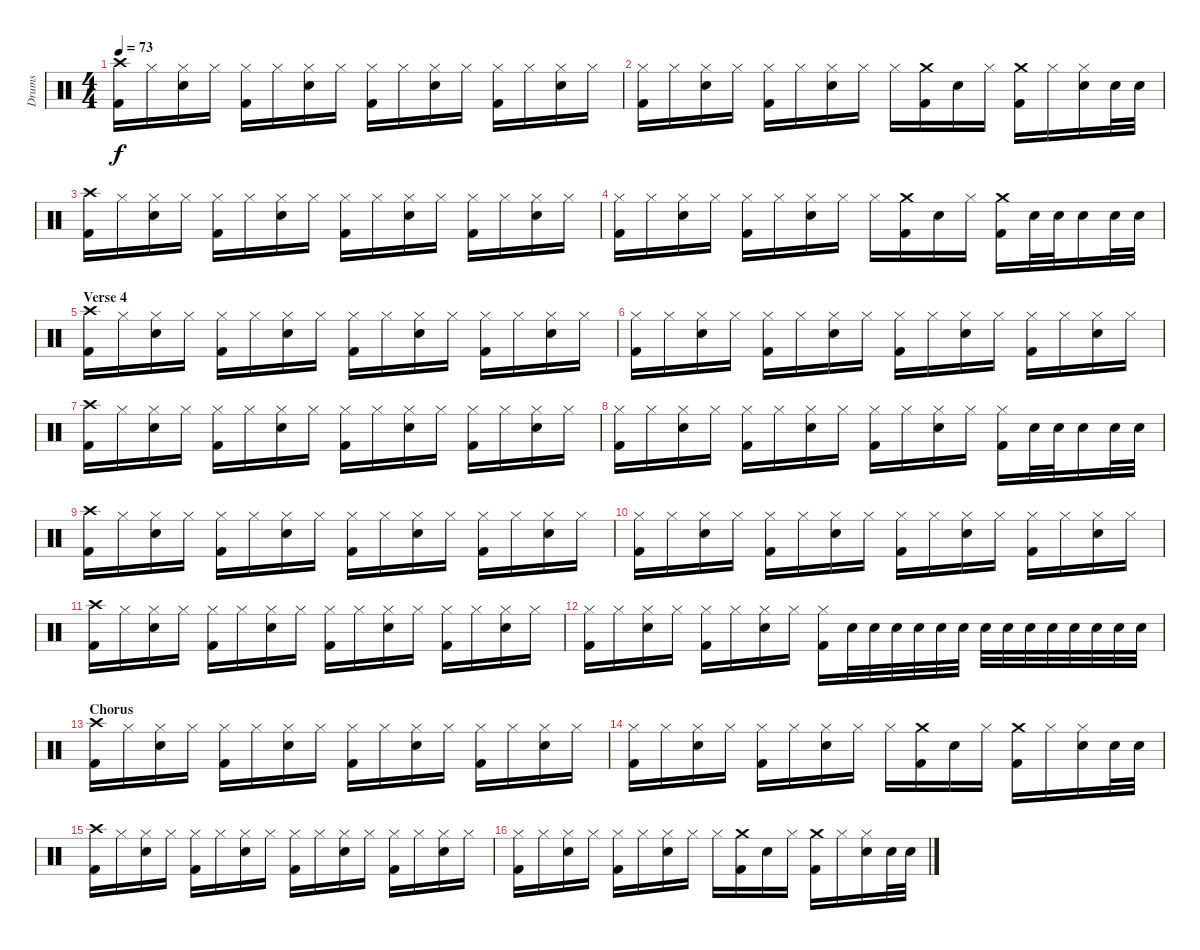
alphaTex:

\track ("Drums" "Drums") {instrument percussion}
\staff {score}
\articulation defaults
\ts (4 4)
\tempo 73
\clef neutral
\ks c
("Crash high (hit)" "Kick (hit) 2").16{dy f} "Hi-Hat (closed)".16 ("Hi-Hat (closed)" "Snare (hit) 2").16 "Hi-Hat (closed)".16 ("Hi-Hat (closed)" "Kick (hit) 2").16 "Hi-Hat (closed)".16 ("Hi-Hat (closed)" "Snare (hit) 2").16 "Hi-Hat (closed)".16 ("Hi-Hat (closed)" "Kick (hit) 2").16 "Hi-Hat (closed)".16 ("Hi-Hat (closed)" "Snare (hit) 2").16 "Hi-Hat (closed)".16 ("Hi-Hat (closed)" "Kick (hit) 2").16 "Hi-Hat (closed)".16 ("Hi-Hat (closed)" "Snare (hit) 2").16 "Hi-Hat (closed)".16 |
("Hi-Hat (closed)" "Kick (hit) 2").16 "Hi-Hat (closed)".16 ("Hi-Hat (closed)" "Snare (hit) 2").16 "Hi-Hat (closed)".16 ("Hi-Hat (closed)" "Kick (hit) 2").16 "Hi-Hat (closed)".16 ("Hi-Hat (closed)" "Snare (hit) 2").16 "Hi-Hat (closed)".16 "Hi-Hat (closed)".16 ("Crash medium (hit)" "Kick (hit) 2").16 "Snare (hit) 2".16 "Hi-Hat (closed)".16 ("Crash medium (hit)" "Kick (hit) 2").16 "Hi-Hat (closed)".16 ("Hi-Hat (closed)" "Snare (hit) 2").16 "Snare (hit) 2".32 "Snare (hit) 2".32 |
("Crash high (hit)" "Kick (hit) 2").16 "Hi-Hat (closed)".16 ("Hi-Hat (closed)" "Snare (hit) 2").16 "Hi-Hat (closed)".16 ("Hi-Hat (closed)" "Kick (hit) 2").16 "Hi-Hat (closed)".16 ("Hi-Hat (closed)" "Snare (hit) 2").16 "Hi-Hat (closed)".16 ("Hi-Hat (closed)" "Kick (hit) 2").16 "Hi-Hat (closed)".16 ("Hi-Hat (closed)" "Snare (hit) 2").16 "Hi-Hat (closed)".16 ("Hi-Hat (closed)" "Kick (hit) 2").16 "Hi-Hat (closed)".16 ("Hi-Hat (closed)" "Snare (hit) 2").16 "Hi-Hat (closed)".16 |
("Hi-Hat (closed)" "Kick (hit) 2").16 "Hi-Hat (closed)".16 ("Hi-Hat (closed)" "Snare (hit) 2").16 "Hi-Hat (closed)".16 ("Hi-Hat (closed)" "Kick (hit) 2").16 "Hi-Hat (closed)".16 ("Hi-Hat (closed)" "Snare (hit) 2").16 "Hi-Hat (closed)".16 "Hi-Hat (closed)".16 ("Crash medium (hit)" "Kick (hit) 2").16 "Snare (hit) 2".16 "Hi-Hat (closed)".16 ("Crash medium (hit)" "Kick (hit) 2").16 "Snare (hit) 2".32 "Snare (hit) 2".32 "Snare (hit) 2".16 "Snare (hit) 2".32 "Snare (hit) 2".32 |
\section ("" "Verse 4")
("Crash high (hit)" "Kick (hit) 2").16 "Hi-Hat (closed)".16 ("Hi-Hat (closed)" "Snare (hit) 2").16 "Hi-Hat (closed)".16 ("Hi-Hat (closed)" "Kick (hit) 2").16 "Hi-Hat (closed)".16 ("Hi-Hat (closed)" "Snare (hit) 2").16 "Hi-Hat (closed)".16 ("Hi-Hat (closed)" "Kick (hit) 2").16 "Hi-Hat (closed)".16 ("Hi-Hat (closed)" "Snare (hit) 2").16 "Hi-Hat (closed)".16 ("Hi-Hat (closed)" "Kick (hit) 2").16 "Hi-Hat (closed)".16 ("Hi-Hat (closed)" "Snare (hit) 2").16 "Hi-Hat (closed)".16 |
("Hi-Hat (closed)" "Kick (hit) 2").16 "Hi-Hat (closed)".16 ("Hi-Hat (closed)" "Snare (hit) 2").16 "Hi-Hat (closed)".16 ("Hi-Hat (closed)" "Kick (hit) 2").16 "Hi-Hat (closed)".16 ("Hi-Hat (closed)" "Snare (hit) 2").16 "Hi-Hat (closed)".16 ("Hi-Hat (closed)" "Kick (hit) 2").16 "Hi-Hat (closed)".16 ("Hi-Hat (closed)" "Snare (hit) 2").16 "Hi-Hat (closed)".16 ("Hi-Hat (closed)" "Kick (hit) 2").16 "Hi-Hat (closed)".16 ("Hi-Hat (closed)" "Snare (hit) 2").16 "Hi-Hat (closed)".16 |
("Crash high (hit)" "Kick (hit) 2").16 "Hi-Hat (closed)".16 ("Hi-Hat (closed)" "Snare (hit) 2").16 "Hi-Hat (closed)".16 ("Hi-Hat (closed)" "Kick (hit) 2").16 "Hi-Hat (closed)".16 ("Hi-Hat (closed)" "Snare (hit) 2").16 "Hi-Hat (closed)".16 ("Hi-Hat (closed)" "Kick (hit) 2").16 "Hi-Hat (closed)".16 ("Hi-Hat (closed)" "Snare (hit) 2").16 "Hi-Hat (closed)".16 ("Hi-Hat (closed)" "Kick (hit) 2").16 "Hi-Hat (closed)".16 ("Hi-Hat (closed)" "Snare (hit) 2").16 "Hi-Hat (closed)".16 |
("Hi-Hat (closed)" "Kick (hit) 2").16 "Hi-Hat (closed)".16 ("Hi-Hat (closed)" "Snare (hit) 2").16 "Hi-Hat (closed)".16 ("Hi-Hat (closed)" "Kick (hit) 2").16 "Hi-Hat (closed)".16 ("Hi-Hat (closed)" "Snare (hit) 2").16 "Hi-Hat (closed)".16 ("Hi-Hat (closed)" "Kick (hit) 2").16 "Hi-Hat (closed)".16 ("Hi-Hat (closed)" "Snare (hit) 2").16 "Hi-Hat (closed)".16 ("Hi-Hat (closed)" "Kick (hit) 2").16 "Snare (hit) 2".32 "Snare (hit) 2".32 "Snare (hit) 2".16 "Snare (hit) 2".32 "Snare (hit) 2".32 |
("Crash high (hit)" "Kick (hit) 2").16 "Hi-Hat (closed)".16 ("Hi-Hat (closed)" "Snare (hit) 2").16 "Hi-Hat (closed)".16 ("Hi-Hat (closed)" "Kick (hit) 2").16 "Hi-Hat (closed)".16 ("Hi-Hat (closed)" "Snare (hit) 2").16 "Hi-Hat (closed)".16 ("Hi-Hat (closed)" "Kick (hit) 2").16 "Hi-Hat (closed)".16 ("Hi-Hat (closed)" "Snare (hit) 2").16 "Hi-Hat (closed)".16 ("Hi-Hat (closed)" "Kick (hit) 2").16 "Hi-Hat (closed)".16 ("Hi-Hat (closed)" "Snare (hit) 2").16 "Hi-Hat (closed)".16 |
("Hi-Hat (closed)" "Kick (hit) 2").16 "Hi-Hat (closed)".16 ("Hi-Hat (closed)" "Snare (hit) 2").16 "Hi-Hat (closed)".16 ("Hi-Hat (closed)" "Kick (hit) 2").16 "Hi-Hat (closed)".16 ("Hi-Hat (closed)" "Snare (hit) 2").16 "Hi-Hat (closed)".16 ("Hi-Hat (closed)" "Kick (hit) 2").16 "Hi-Hat (closed)".16 ("Hi-Hat (closed)" "Snare (hit) 2").16 "Hi-Hat (closed)".16 ("Hi-Hat (closed)" "Kick (hit) 2").16 "Hi-Hat (closed)".16 ("Hi-Hat (closed)" "Snare (hit) 2").16 "Hi-Hat (closed)".16 |
("Crash high (hit)" "Kick (hit) 2").16 "Hi-Hat (closed)".16 ("Hi-Hat (closed)" "Snare (hit) 2").16 "Hi-Hat (closed)".16 ("Hi-Hat (closed)" "Kick (hit) 2").16 "Hi-Hat (closed)".16 ("Hi-Hat (closed)" "Snare (hit) 2").16 "Hi-Hat (closed)".16 ("Hi-Hat (closed)" "Kick (hit) 2").16 "Hi-Hat (closed)".16 ("Hi-Hat (closed)" "Snare (hit) 2").16 "Hi-Hat (closed)".16 ("Hi-Hat (closed)" "Kick (hit) 2").16 "Hi-Hat (closed)".16 ("Hi-Hat (closed)" "Snare (hit) 2").16 "Hi-Hat (closed)".16 |
("Hi-Hat (closed)" "Kick (hit) 2").16 "Hi-Hat (closed)".16 ("Hi-Hat (closed)" "Snare (hit) 2").16 "Hi-Hat (closed)".16 ("Hi-Hat (closed)" "Kick (hit) 2").16 "Hi-Hat (closed)".16 ("Hi-Hat (closed)" "Snare (hit) 2").16 "Hi-Hat (closed)".16 ("Hi-Hat (closed)" "Kick (hit) 2").16 "Snare (hit) 2".32 "Snare (hit) 2".32 "Snare (hit) 2".32 "Snare (hit) 2".32 "Snare (hit) 2".32 "Snare (hit) 2".32 "Snare (hit) 2".32 "Snare (hit) 2".32 "Snare (hit) 2".32 "Snare (hit) 2".32 "Snare (hit) 2".32 "Snare (hit) 2".32 "Snare (hit) 2".32 "Snare (hit) 2".32 |
\section ("" "Chorus")
("Crash high (hit)" "Kick (hit) 2").16 "Hi-Hat (closed)".16 ("Hi-Hat (closed)" "Snare (hit) 2").16 "Hi-Hat (closed)".16 ("Hi-Hat (closed)" "Kick (hit) 2").16 "Hi-Hat (closed)".16 ("Hi-Hat (closed)" "Snare (hit) 2").16 "Hi-Hat (closed)".16 ("Hi-Hat (closed)" "Kick (hit) 2").16 "Hi-Hat (closed)".16 ("Hi-Hat (closed)" "Snare (hit) 2").16 "Hi-Hat (closed)".16 ("Hi-Hat (closed)" "Kick (hit) 2").16 "Hi-Hat (closed)".16 ("Hi-Hat (closed)" "Snare (hit) 2").16 "Hi-Hat (closed)".16 |
("Hi-Hat (closed)" "Kick (hit) 2").16 "Hi-Hat (closed)".16 ("Hi-Hat (closed)" "Snare (hit) 2").16 "Hi-Hat (closed)".16 ("Hi-Hat (closed)" "Kick (hit) 2").16 "Hi-Hat (closed)".16 ("Hi-Hat (closed)" "Snare (hit) 2").16 "Hi-Hat (closed)".16 "Hi-Hat (closed)".16 ("Crash medium (hit)" "Kick (hit) 2").16 "Snare (hit) 2".16 "Hi-Hat (closed)".16 ("Crash medium (hit)" "Kick (hit) 2").16 "Hi-Hat (closed)".16 ("Hi-Hat (closed)" "Snare (hit) 2").16 "Snare (hit) 2".32 "Snare (hit) 2".32 |
("Crash high (hit)" "Kick (hit) 2").16 "Hi-Hat (closed)".16 ("Hi-Hat (closed)" "Snare (hit) 2").16 "Hi-Hat (closed)".16 ("Hi-Hat (closed)" "Kick (hit) 2").16 "Hi-Hat (closed)".16 ("Hi-Hat (closed)" "Snare (hit) 2").16 "Hi-Hat (closed)".16 ("Hi-Hat (closed)" "Kick (hit) 2").16 "Hi-Hat (closed)".16 ("Hi-Hat (closed)" "Snare (hit) 2").16 "Hi-Hat (closed)".16 ("Hi-Hat (closed)" "Kick (hit) 2").16 "Hi-Hat (closed)".16 ("Hi-Hat (closed)" "Snare (hit) 2").16 "Hi-Hat (closed)".16 |
("Hi-Hat (closed)" "Kick (hit) 2").16 "Hi-Hat (closed)".16 ("Hi-Hat (closed)" "Snare (hit) 2").16 "Hi-Hat (closed)".16 ("Hi-Hat (closed)" "Kick (hit) 2").16 "Hi-Hat (closed)".16 ("Hi-Hat (closed)" "Snare (hit) 2").16 "Hi-Hat (closed)".16 "Hi-Hat (closed)".16 ("Crash medium (hit)" "Kick (hit) 2").16 "Snare (hit) 2".16 "Hi-Hat (closed)".16 ("Crash medium (hit)" "Kick (hit) 2").16 "Hi-Hat (closed)".16 ("Hi-Hat (closed)" "Snare (hit) 2").16 "Snare (hit) 2".32 "Snare (hit) 2".32
